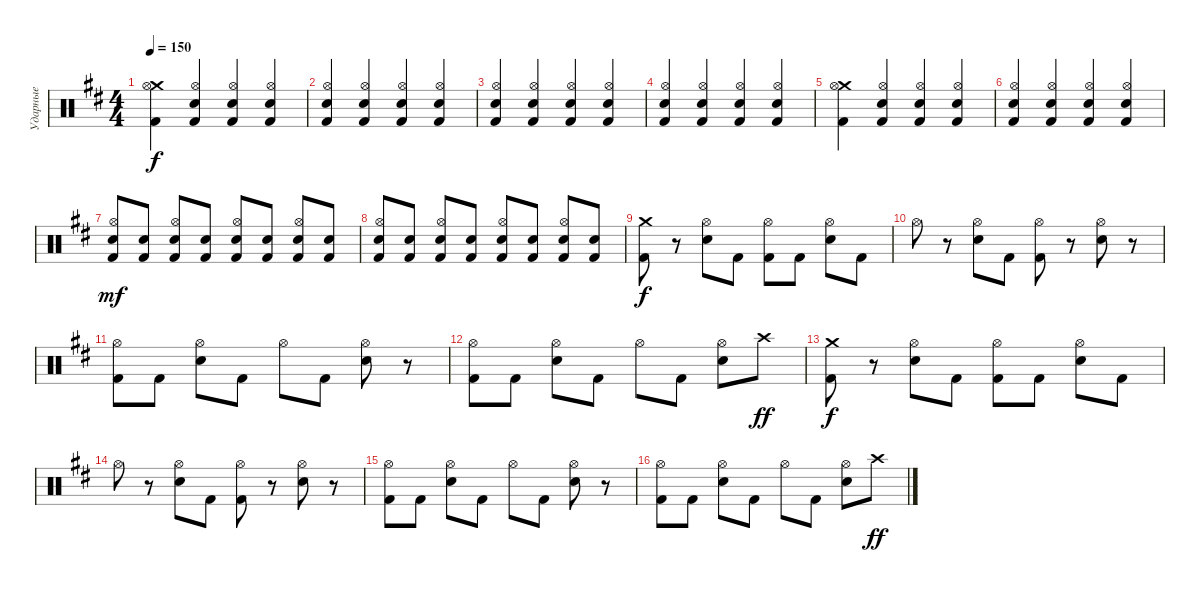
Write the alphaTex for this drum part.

\track ("Ударные" "Ударные") {instrument percussion}
\staff {score}
\articulation defaults
\ts (4 4)
\tempo 150
\clef neutral
\ks bminor
("Crash medium (hit)" "Kick (hit) 2" "Hi-Hat (open)").4{dy f} ("Electric Snare (hit)" "Hi-Hat (open)" "Kick (hit) 2").4 ("Electric Snare (hit)" "Hi-Hat (open)" "Kick (hit) 2").4 ("Electric Snare (hit)" "Hi-Hat (open)" "Kick (hit) 2").4 |
("Electric Snare (hit)" "Hi-Hat (open)" "Kick (hit) 2").4 ("Electric Snare (hit)" "Hi-Hat (open)" "Kick (hit) 2").4 ("Electric Snare (hit)" "Hi-Hat (open)" "Kick (hit) 2").4 ("Electric Snare (hit)" "Hi-Hat (open)" "Kick (hit) 2").4 |
("Electric Snare (hit)" "Hi-Hat (open)" "Kick (hit) 2").4 ("Electric Snare (hit)" "Hi-Hat (open)" "Kick (hit) 2").4 ("Electric Snare (hit)" "Hi-Hat (open)" "Kick (hit) 2").4 ("Electric Snare (hit)" "Hi-Hat (open)" "Kick (hit) 2").4 |
("Electric Snare (hit)" "Hi-Hat (open)" "Kick (hit) 2").4 ("Electric Snare (hit)" "Hi-Hat (open)" "Kick (hit) 2").4 ("Electric Snare (hit)" "Hi-Hat (open)" "Kick (hit) 2").4 ("Electric Snare (hit)" "Hi-Hat (open)" "Kick (hit) 2").4 |
("Crash medium (hit)" "Kick (hit) 2" "Hi-Hat (open)").4 ("Electric Snare (hit)" "Hi-Hat (open)" "Kick (hit) 2").4 ("Electric Snare (hit)" "Hi-Hat (open)" "Kick (hit) 2").4 ("Electric Snare (hit)" "Hi-Hat (open)" "Kick (hit) 2").4 |
("Electric Snare (hit)" "Hi-Hat (open)" "Kick (hit) 2").4 ("Electric Snare (hit)" "Hi-Hat (open)" "Kick (hit) 2").4 ("Electric Snare (hit)" "Hi-Hat (open)" "Kick (hit) 2").4 ("Electric Snare (hit)" "Hi-Hat (open)" "Kick (hit) 2").4 |
("Hi-Hat (open)" "Kick (hit) 2" "Electric Snare (hit)").8{dy mf} ("Kick (hit) 2" "Electric Snare (hit)").8 ("Hi-Hat (open)" "Kick (hit) 2" "Electric Snare (hit)").8 ("Kick (hit) 2" "Electric Snare (hit)").8 ("Hi-Hat (open)" "Kick (hit) 2" "Electric Snare (hit)").8 ("Kick (hit) 2" "Electric Snare (hit)").8 ("Hi-Hat (open)" "Kick (hit) 2" "Electric Snare (hit)").8 ("Kick (hit) 2" "Electric Snare (hit)").8 |
("Hi-Hat (open)" "Kick (hit) 2" "Electric Snare (hit)").8 ("Kick (hit) 2" "Electric Snare (hit)").8 ("Hi-Hat (open)" "Kick (hit) 2" "Electric Snare (hit)").8 ("Kick (hit) 2" "Electric Snare (hit)").8 ("Hi-Hat (open)" "Kick (hit) 2" "Electric Snare (hit)").8 ("Kick (hit) 2" "Electric Snare (hit)").8 ("Hi-Hat (open)" "Kick (hit) 2" "Electric Snare (hit)").8 ("Kick (hit) 2" "Electric Snare (hit)").8 |
("Crash medium (hit)" "Kick (hit) 2").8{dy f} r.8 ("Electric Snare (hit)" "Hi-Hat (open)").8 "Kick (hit) 2".8 ("Kick (hit) 2" "Hi-Hat (open)").8 "Kick (hit) 2".8 ("Electric Snare (hit)" "Hi-Hat (open)").8 "Kick (hit) 2".8 |
"Hi-Hat (open)".8 r.8 ("Electric Snare (hit)" "Hi-Hat (open)").8 "Kick (hit) 2".8 ("Kick (hit) 2" "Hi-Hat (open)").8 r.8 ("Electric Snare (hit)" "Hi-Hat (open)").8 r.8 |
("Kick (hit) 2" "Hi-Hat (open)").8 "Kick (hit) 2".8 ("Electric Snare (hit)" "Hi-Hat (open)").8 "Kick (hit) 2".8 "Hi-Hat (open)".8 "Kick (hit) 2".8 ("Electric Snare (hit)" "Hi-Hat (open)").8 r.8 |
("Kick (hit) 2" "Hi-Hat (open)").8 "Kick (hit) 2".8 ("Electric Snare (hit)" "Hi-Hat (open)").8 "Kick (hit) 2".8 "Hi-Hat (open)".8 "Kick (hit) 2".8 ("Electric Snare (hit)" "Hi-Hat (open)").8 "Crash high (hit)".8{dy ff} |
("Crash medium (hit)" "Kick (hit) 2").8{dy f} r.8 ("Electric Snare (hit)" "Hi-Hat (open)").8 "Kick (hit) 2".8 ("Kick (hit) 2" "Hi-Hat (open)").8 "Kick (hit) 2".8 ("Electric Snare (hit)" "Hi-Hat (open)").8 "Kick (hit) 2".8 |
"Hi-Hat (open)".8 r.8 ("Electric Snare (hit)" "Hi-Hat (open)").8 "Kick (hit) 2".8 ("Kick (hit) 2" "Hi-Hat (open)").8 r.8 ("Electric Snare (hit)" "Hi-Hat (open)").8 r.8 |
("Kick (hit) 2" "Hi-Hat (open)").8 "Kick (hit) 2".8 ("Electric Snare (hit)" "Hi-Hat (open)").8 "Kick (hit) 2".8 "Hi-Hat (open)".8 "Kick (hit) 2".8 ("Electric Snare (hit)" "Hi-Hat (open)").8 r.8 |
("Kick (hit) 2" "Hi-Hat (open)").8 "Kick (hit) 2".8 ("Electric Snare (hit)" "Hi-Hat (open)").8 "Kick (hit) 2".8 "Hi-Hat (open)".8 "Kick (hit) 2".8 ("Electric Snare (hit)" "Hi-Hat (open)").8 "Crash high (hit)".8{dy ff}
